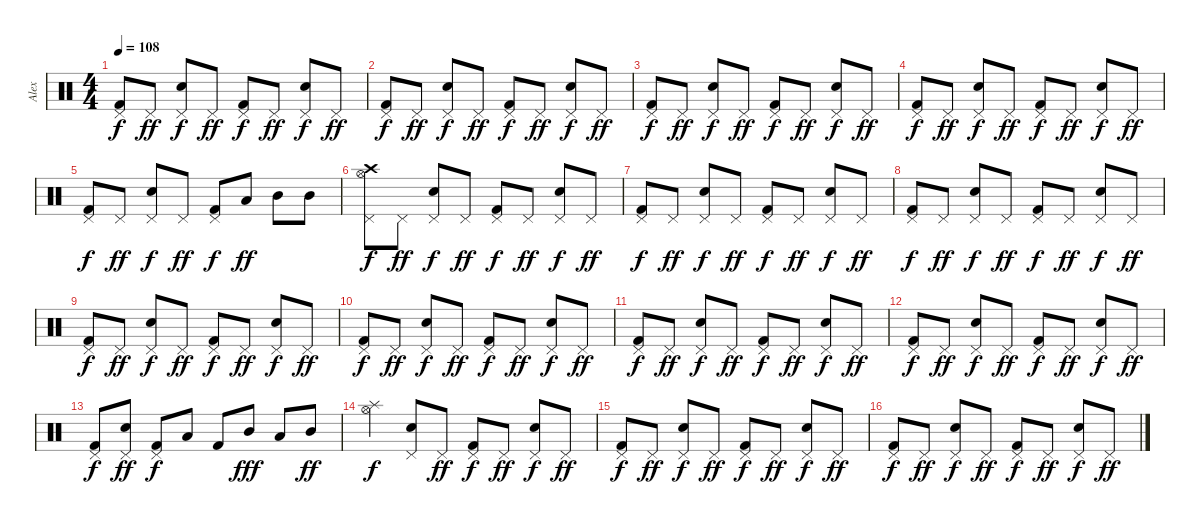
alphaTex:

\track ("Alex" "Alex") {instrument percussion}
\staff {score}
\articulation defaults
\ts (4 4)
\tempo 108
\clef neutral
\ks c
("Kick (hit) 2" "Pedal Hi-Hat (hit)").8{dy f} "Pedal Hi-Hat (hit)".8{dy ff} ("Electric Snare (hit)" "Pedal Hi-Hat (hit)").8{dy f} "Pedal Hi-Hat (hit)".8{dy ff} ("Kick (hit) 2" "Pedal Hi-Hat (hit)").8{dy f} "Pedal Hi-Hat (hit)".8{dy ff} ("Electric Snare (hit)" "Pedal Hi-Hat (hit)").8{dy f} "Pedal Hi-Hat (hit)".8{dy ff} |
("Kick (hit) 2" "Pedal Hi-Hat (hit)").8{dy f} "Pedal Hi-Hat (hit)".8{dy ff} ("Electric Snare (hit)" "Pedal Hi-Hat (hit)").8{dy f} "Pedal Hi-Hat (hit)".8{dy ff} ("Kick (hit) 2" "Pedal Hi-Hat (hit)").8{dy f} "Pedal Hi-Hat (hit)".8{dy ff} ("Electric Snare (hit)" "Pedal Hi-Hat (hit)").8{dy f} "Pedal Hi-Hat (hit)".8{dy ff} |
("Kick (hit) 2" "Pedal Hi-Hat (hit)").8{dy f} "Pedal Hi-Hat (hit)".8{dy ff} ("Electric Snare (hit)" "Pedal Hi-Hat (hit)").8{dy f} "Pedal Hi-Hat (hit)".8{dy ff} ("Kick (hit) 2" "Pedal Hi-Hat (hit)").8{dy f} "Pedal Hi-Hat (hit)".8{dy ff} ("Electric Snare (hit)" "Pedal Hi-Hat (hit)").8{dy f} "Pedal Hi-Hat (hit)".8{dy ff} |
("Kick (hit) 2" "Pedal Hi-Hat (hit)").8{dy f} "Pedal Hi-Hat (hit)".8{dy ff} ("Electric Snare (hit)" "Pedal Hi-Hat (hit)").8{dy f} "Pedal Hi-Hat (hit)".8{dy ff} ("Kick (hit) 2" "Pedal Hi-Hat (hit)").8{dy f} "Pedal Hi-Hat (hit)".8{dy ff} ("Electric Snare (hit)" "Pedal Hi-Hat (hit)").8{dy f} "Pedal Hi-Hat (hit)".8{dy ff} |
("Kick (hit) 2" "Pedal Hi-Hat (hit)").8{dy f} "Pedal Hi-Hat (hit)".8{dy ff} ("Electric Snare (hit)" "Pedal Hi-Hat (hit)").8{dy f} "Pedal Hi-Hat (hit)".8{dy ff} ("Kick (hit) 2" "Pedal Hi-Hat (hit)").8{dy f} "Low Tom (hit)".8{dy ff} "Mid Tom (hit)".8 "Mid Tom (hit)".8 |
("Crash high (hit)" "Hi-Hat (open)" "Pedal Hi-Hat (hit)").8{dy f} "Pedal Hi-Hat (hit)".8{dy ff} ("Electric Snare (hit)" "Pedal Hi-Hat (hit)").8{dy f} "Pedal Hi-Hat (hit)".8{dy ff} ("Kick (hit) 2" "Pedal Hi-Hat (hit)").8{dy f} "Pedal Hi-Hat (hit)".8{dy ff} ("Electric Snare (hit)" "Pedal Hi-Hat (hit)").8{dy f} "Pedal Hi-Hat (hit)".8{dy ff} |
("Kick (hit) 2" "Pedal Hi-Hat (hit)").8{dy f} "Pedal Hi-Hat (hit)".8{dy ff} ("Electric Snare (hit)" "Pedal Hi-Hat (hit)").8{dy f} "Pedal Hi-Hat (hit)".8{dy ff} ("Kick (hit) 2" "Pedal Hi-Hat (hit)").8{dy f} "Pedal Hi-Hat (hit)".8{dy ff} ("Electric Snare (hit)" "Pedal Hi-Hat (hit)").8{dy f} "Pedal Hi-Hat (hit)".8{dy ff} |
("Kick (hit) 2" "Pedal Hi-Hat (hit)").8{dy f} "Pedal Hi-Hat (hit)".8{dy ff} ("Electric Snare (hit)" "Pedal Hi-Hat (hit)").8{dy f} "Pedal Hi-Hat (hit)".8{dy ff} ("Kick (hit) 2" "Pedal Hi-Hat (hit)").8{dy f} "Pedal Hi-Hat (hit)".8{dy ff} ("Electric Snare (hit)" "Pedal Hi-Hat (hit)").8{dy f} "Pedal Hi-Hat (hit)".8{dy ff} |
("Kick (hit) 2" "Pedal Hi-Hat (hit)").8{dy f} "Pedal Hi-Hat (hit)".8{dy ff} ("Electric Snare (hit)" "Pedal Hi-Hat (hit)").8{dy f} "Pedal Hi-Hat (hit)".8{dy ff} ("Kick (hit) 2" "Pedal Hi-Hat (hit)").8{dy f} "Pedal Hi-Hat (hit)".8{dy ff} ("Electric Snare (hit)" "Pedal Hi-Hat (hit)").8{dy f} "Pedal Hi-Hat (hit)".8{dy ff} |
("Kick (hit) 2" "Pedal Hi-Hat (hit)").8{dy f} "Pedal Hi-Hat (hit)".8{dy ff} ("Electric Snare (hit)" "Pedal Hi-Hat (hit)").8{dy f} "Pedal Hi-Hat (hit)".8{dy ff} ("Kick (hit) 2" "Pedal Hi-Hat (hit)").8{dy f} "Pedal Hi-Hat (hit)".8{dy ff} ("Electric Snare (hit)" "Pedal Hi-Hat (hit)").8{dy f} "Pedal Hi-Hat (hit)".8{dy ff} |
("Kick (hit) 2" "Pedal Hi-Hat (hit)").8{dy f} "Pedal Hi-Hat (hit)".8{dy ff} ("Electric Snare (hit)" "Pedal Hi-Hat (hit)").8{dy f} "Pedal Hi-Hat (hit)".8{dy ff} ("Kick (hit) 2" "Pedal Hi-Hat (hit)").8{dy f} "Pedal Hi-Hat (hit)".8{dy ff} ("Electric Snare (hit)" "Pedal Hi-Hat (hit)").8{dy f} "Pedal Hi-Hat (hit)".8{dy ff} |
("Kick (hit) 2" "Pedal Hi-Hat (hit)").8{dy f} "Pedal Hi-Hat (hit)".8{dy ff} ("Electric Snare (hit)" "Pedal Hi-Hat (hit)").8{dy f} "Pedal Hi-Hat (hit)".8{dy ff} ("Kick (hit) 2" "Pedal Hi-Hat (hit)").8{dy f} "Pedal Hi-Hat (hit)".8{dy ff} ("Electric Snare (hit)" "Pedal Hi-Hat (hit)").8{dy f} "Pedal Hi-Hat (hit)".8{dy ff} |
("Kick (hit) 2" "Pedal Hi-Hat (hit)").8{dy f} ("Electric Snare (hit)" "Pedal Hi-Hat (hit)").8{dy ff} ("Kick (hit) 2" "Pedal Hi-Hat (hit)").8{dy f} "Low Tom (hit)".8 "Kick (hit) 2".8 "Mid Tom (hit)".8{dy fff} "Low Tom (hit)".8 "Mid Tom (hit)".8{dy ff} |
("Hi-Hat (open)" "Splash (hit)").4{dy f} ("Electric Snare (hit)" "Pedal Hi-Hat (hit)").8 "Pedal Hi-Hat (hit)".8{dy ff} ("Kick (hit) 2" "Pedal Hi-Hat (hit)").8{dy f} "Pedal Hi-Hat (hit)".8{dy ff} ("Electric Snare (hit)" "Pedal Hi-Hat (hit)").8{dy f} "Pedal Hi-Hat (hit)".8{dy ff} |
("Kick (hit) 2" "Pedal Hi-Hat (hit)").8{dy f} "Pedal Hi-Hat (hit)".8{dy ff} ("Electric Snare (hit)" "Pedal Hi-Hat (hit)").8{dy f} "Pedal Hi-Hat (hit)".8{dy ff} ("Kick (hit) 2" "Pedal Hi-Hat (hit)").8{dy f} "Pedal Hi-Hat (hit)".8{dy ff} ("Electric Snare (hit)" "Pedal Hi-Hat (hit)").8{dy f} "Pedal Hi-Hat (hit)".8{dy ff} |
("Kick (hit) 2" "Pedal Hi-Hat (hit)").8{dy f} "Pedal Hi-Hat (hit)".8{dy ff} ("Electric Snare (hit)" "Pedal Hi-Hat (hit)").8{dy f} "Pedal Hi-Hat (hit)".8{dy ff} ("Kick (hit) 2" "Pedal Hi-Hat (hit)").8{dy f} "Pedal Hi-Hat (hit)".8{dy ff} ("Electric Snare (hit)" "Pedal Hi-Hat (hit)").8{dy f} "Pedal Hi-Hat (hit)".8{dy ff}
